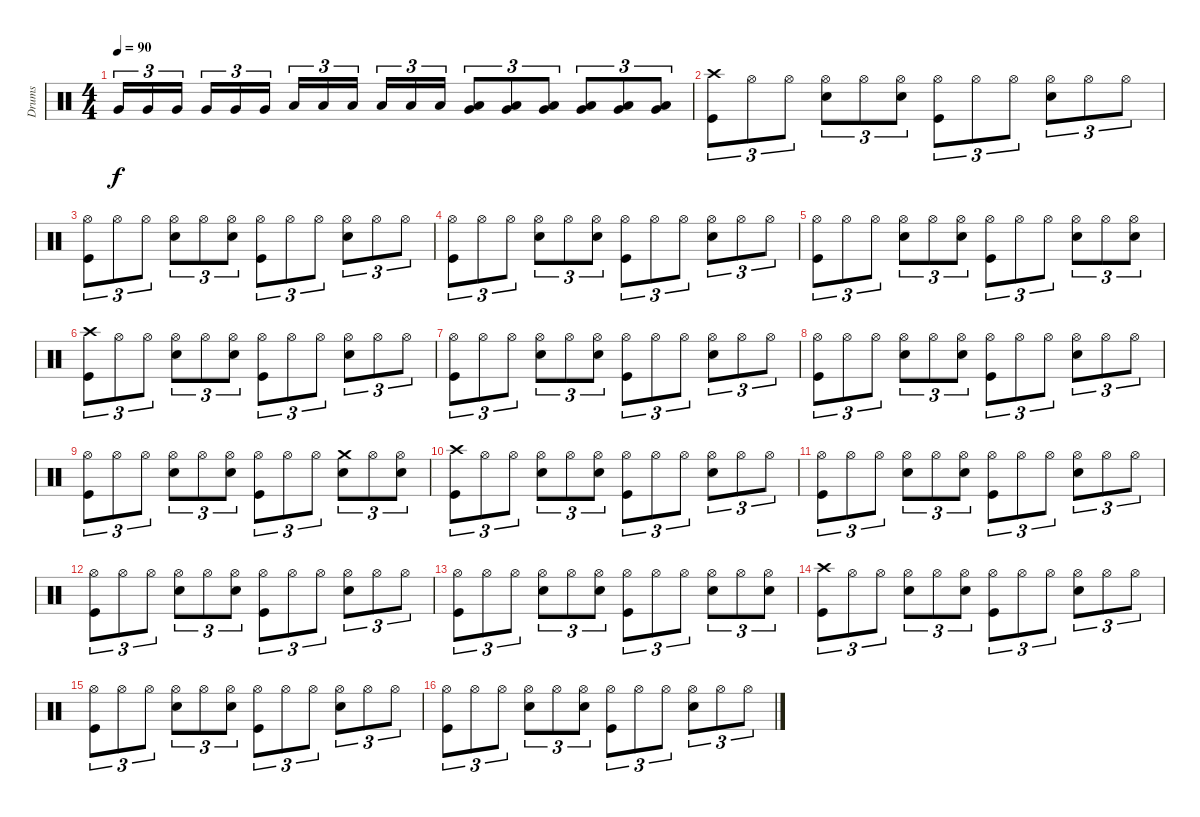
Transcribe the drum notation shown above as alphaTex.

\track ("Drums" "Drums") {instrument percussion}
\staff {score}
\articulation defaults
\ts (4 4)
\tempo 90
\clef neutral
\ks c "Very Low Tom (hit)".16{tu (3 2) dy f} "Very Low Tom (hit)".16{tu (3 2)} "Very Low Tom (hit)".16{tu (3 2)} "Very Low Tom (hit)".16{tu (3 2)} "Very Low Tom (hit)".16{tu (3 2)} "Very Low Tom (hit)".16{tu (3 2)} "Low Floor Tom (hit)".16{tu (3 2)} "Low Floor Tom (hit)".16{tu (3 2)} "Low Floor Tom (hit)".16{tu (3 2)} "Low Floor Tom (hit)".16{tu (3 2)} "Low Floor Tom (hit)".16{tu (3 2)} "Low Floor Tom (hit)".16{tu (3 2)}
("Very Low Tom (hit)" "Low Floor Tom (hit)").8{tu (3 2)} ("Very Low Tom (hit)" "Low Floor Tom (hit)").8{tu (3 2)} ("Very Low Tom (hit)" "Low Floor Tom (hit)").8{tu (3 2)} ("Low Tom (hit)" "Very Low Tom (hit)").8{tu (3 2)} ("Low Tom (hit)" "Very Low Tom (hit)").8{tu (3 2)} ("Low Tom (hit)" "Very Low Tom (hit)").8{tu (3 2)} |
("Crash high (hit)" "Kick (hit)").8{tu (3 2)} "Hi-Hat (open)".8{tu (3 2)} "Hi-Hat (open)".8{tu (3 2)} ("Hi-Hat (open)" "Snare (hit) 2").8{tu (3 2)} "Hi-Hat (open)".8{tu (3 2)} ("Hi-Hat (open)" "Snare (hit) 2").8{tu (3 2)} ("Hi-Hat (open)" "Kick (hit)").8{tu (3 2)} "Hi-Hat (open)".8{tu (3 2)} "Hi-Hat (open)".8{tu (3 2)} ("Hi-Hat (open)" "Snare (hit) 2").8{tu (3 2)} "Hi-Hat (open)".8{tu (3 2)} "Hi-Hat (open)".8{tu (3 2)} |
("Hi-Hat (open)" "Kick (hit)").8{tu (3 2)} "Hi-Hat (open)".8{tu (3 2)} "Hi-Hat (open)".8{tu (3 2)} ("Hi-Hat (open)" "Snare (hit) 2").8{tu (3 2)} "Hi-Hat (open)".8{tu (3 2)} ("Hi-Hat (open)" "Snare (hit) 2").8{tu (3 2)} ("Hi-Hat (open)" "Kick (hit)").8{tu (3 2)} "Hi-Hat (open)".8{tu (3 2)} "Hi-Hat (open)".8{tu (3 2)} ("Hi-Hat (open)" "Snare (hit) 2").8{tu (3 2)} "Hi-Hat (open)".8{tu (3 2)} "Hi-Hat (open)".8{tu (3 2)} |
("Hi-Hat (open)" "Kick (hit)").8{tu (3 2)} "Hi-Hat (open)".8{tu (3 2)} "Hi-Hat (open)".8{tu (3 2)} ("Hi-Hat (open)" "Snare (hit) 2").8{tu (3 2)} "Hi-Hat (open)".8{tu (3 2)} ("Hi-Hat (open)" "Snare (hit) 2").8{tu (3 2)} ("Hi-Hat (open)" "Kick (hit)").8{tu (3 2)} "Hi-Hat (open)".8{tu (3 2)} "Hi-Hat (open)".8{tu (3 2)} ("Hi-Hat (open)" "Snare (hit) 2").8{tu (3 2)} "Hi-Hat (open)".8{tu (3 2)} "Hi-Hat (open)".8{tu (3 2)} |
("Hi-Hat (open)" "Kick (hit)").8{tu (3 2)} "Hi-Hat (open)".8{tu (3 2)} "Hi-Hat (open)".8{tu (3 2)} ("Hi-Hat (open)" "Snare (hit) 2").8{tu (3 2)} "Hi-Hat (open)".8{tu (3 2)} ("Hi-Hat (open)" "Snare (hit) 2").8{tu (3 2)} ("Hi-Hat (open)" "Kick (hit)").8{tu (3 2)} "Hi-Hat (open)".8{tu (3 2)} "Hi-Hat (open)".8{tu (3 2)} ("Hi-Hat (open)" "Snare (hit) 2").8{tu (3 2)} "Hi-Hat (open)".8{tu (3 2)} ("Hi-Hat (open)" "Snare (hit) 2").8{tu (3 2)} |
("Crash high (hit)" "Kick (hit)").8{tu (3 2)} "Hi-Hat (open)".8{tu (3 2)} "Hi-Hat (open)".8{tu (3 2)} ("Hi-Hat (open)" "Snare (hit) 2").8{tu (3 2)} "Hi-Hat (open)".8{tu (3 2)} ("Hi-Hat (open)" "Snare (hit) 2").8{tu (3 2)} ("Hi-Hat (open)" "Kick (hit)").8{tu (3 2)} "Hi-Hat (open)".8{tu (3 2)} "Hi-Hat (open)".8{tu (3 2)} ("Hi-Hat (open)" "Snare (hit) 2").8{tu (3 2)} "Hi-Hat (open)".8{tu (3 2)} "Hi-Hat (open)".8{tu (3 2)} |
("Hi-Hat (open)" "Kick (hit)").8{tu (3 2)} "Hi-Hat (open)".8{tu (3 2)} "Hi-Hat (open)".8{tu (3 2)} ("Hi-Hat (open)" "Snare (hit) 2").8{tu (3 2)} "Hi-Hat (open)".8{tu (3 2)} ("Hi-Hat (open)" "Snare (hit) 2").8{tu (3 2)} ("Hi-Hat (open)" "Kick (hit)").8{tu (3 2)} "Hi-Hat (open)".8{tu (3 2)} "Hi-Hat (open)".8{tu (3 2)} ("Hi-Hat (open)" "Snare (hit) 2").8{tu (3 2)} "Hi-Hat (open)".8{tu (3 2)} "Hi-Hat (open)".8{tu (3 2)} |
("Hi-Hat (open)" "Kick (hit)").8{tu (3 2)} "Hi-Hat (open)".8{tu (3 2)} "Hi-Hat (open)".8{tu (3 2)} ("Hi-Hat (open)" "Snare (hit) 2").8{tu (3 2)} "Hi-Hat (open)".8{tu (3 2)} ("Hi-Hat (open)" "Snare (hit) 2").8{tu (3 2)} ("Hi-Hat (open)" "Kick (hit)").8{tu (3 2)} "Hi-Hat (open)".8{tu (3 2)} "Hi-Hat (open)".8{tu (3 2)} ("Hi-Hat (open)" "Snare (hit) 2").8{tu (3 2)} "Hi-Hat (open)".8{tu (3 2)} "Hi-Hat (open)".8{tu (3 2)} |
("Hi-Hat (open)" "Kick (hit)").8{tu (3 2)} "Hi-Hat (open)".8{tu (3 2)} "Hi-Hat (open)".8{tu (3 2)} ("Hi-Hat (open)" "Snare (hit) 2").8{tu (3 2)} "Hi-Hat (open)".8{tu (3 2)} ("Hi-Hat (open)" "Snare (hit) 2").8{tu (3 2)} ("Hi-Hat (open)" "Kick (hit)").8{tu (3 2)} "Hi-Hat (open)".8{tu (3 2)} "Hi-Hat (open)".8{tu (3 2)} ("Crash medium (hit)" "Snare (hit) 2").8{tu (3 2)} "Hi-Hat (open)".8{tu (3 2)} ("Hi-Hat (open)" "Snare (hit) 2").8{tu (3 2)} |
("Crash high (hit)" "Kick (hit)").8{tu (3 2)} "Hi-Hat (open)".8{tu (3 2)} "Hi-Hat (open)".8{tu (3 2)} ("Hi-Hat (open)" "Snare (hit) 2").8{tu (3 2)} "Hi-Hat (open)".8{tu (3 2)} ("Hi-Hat (open)" "Snare (hit) 2").8{tu (3 2)} ("Hi-Hat (open)" "Kick (hit)").8{tu (3 2)} "Hi-Hat (open)".8{tu (3 2)} "Hi-Hat (open)".8{tu (3 2)} ("Hi-Hat (open)" "Snare (hit) 2").8{tu (3 2)} "Hi-Hat (open)".8{tu (3 2)} "Hi-Hat (open)".8{tu (3 2)} |
("Hi-Hat (open)" "Kick (hit)").8{tu (3 2)} "Hi-Hat (open)".8{tu (3 2)} "Hi-Hat (open)".8{tu (3 2)} ("Hi-Hat (open)" "Snare (hit) 2").8{tu (3 2)} "Hi-Hat (open)".8{tu (3 2)} ("Hi-Hat (open)" "Snare (hit) 2").8{tu (3 2)} ("Hi-Hat (open)" "Kick (hit)").8{tu (3 2)} "Hi-Hat (open)".8{tu (3 2)} "Hi-Hat (open)".8{tu (3 2)} ("Hi-Hat (open)" "Snare (hit) 2").8{tu (3 2)} "Hi-Hat (open)".8{tu (3 2)} "Hi-Hat (open)".8{tu (3 2)} |
("Hi-Hat (open)" "Kick (hit)").8{tu (3 2)} "Hi-Hat (open)".8{tu (3 2)} "Hi-Hat (open)".8{tu (3 2)} ("Hi-Hat (open)" "Snare (hit) 2").8{tu (3 2)} "Hi-Hat (open)".8{tu (3 2)} ("Hi-Hat (open)" "Snare (hit) 2").8{tu (3 2)} ("Hi-Hat (open)" "Kick (hit)").8{tu (3 2)} "Hi-Hat (open)".8{tu (3 2)} "Hi-Hat (open)".8{tu (3 2)} ("Hi-Hat (open)" "Snare (hit) 2").8{tu (3 2)} "Hi-Hat (open)".8{tu (3 2)} "Hi-Hat (open)".8{tu (3 2)} |
("Hi-Hat (open)" "Kick (hit)").8{tu (3 2)} "Hi-Hat (open)".8{tu (3 2)} "Hi-Hat (open)".8{tu (3 2)} ("Hi-Hat (open)" "Snare (hit) 2").8{tu (3 2)} "Hi-Hat (open)".8{tu (3 2)} ("Hi-Hat (open)" "Snare (hit) 2").8{tu (3 2)} ("Hi-Hat (open)" "Kick (hit)").8{tu (3 2)} "Hi-Hat (open)".8{tu (3 2)} "Hi-Hat (open)".8{tu (3 2)} ("Hi-Hat (open)" "Snare (hit) 2").8{tu (3 2)} "Hi-Hat (open)".8{tu (3 2)} ("Hi-Hat (open)" "Snare (hit) 2").8{tu (3 2)} |
("Crash high (hit)" "Kick (hit)").8{tu (3 2)} "Hi-Hat (open)".8{tu (3 2)} "Hi-Hat (open)".8{tu (3 2)} ("Hi-Hat (open)" "Snare (hit) 2").8{tu (3 2)} "Hi-Hat (open)".8{tu (3 2)} ("Hi-Hat (open)" "Snare (hit) 2").8{tu (3 2)} ("Hi-Hat (open)" "Kick (hit)").8{tu (3 2)} "Hi-Hat (open)".8{tu (3 2)} "Hi-Hat (open)".8{tu (3 2)} ("Hi-Hat (open)" "Snare (hit) 2").8{tu (3 2)} "Hi-Hat (open)".8{tu (3 2)} "Hi-Hat (open)".8{tu (3 2)} |
("Hi-Hat (open)" "Kick (hit)").8{tu (3 2)} "Hi-Hat (open)".8{tu (3 2)} "Hi-Hat (open)".8{tu (3 2)} ("Hi-Hat (open)" "Snare (hit) 2").8{tu (3 2)} "Hi-Hat (open)".8{tu (3 2)} ("Hi-Hat (open)" "Snare (hit) 2").8{tu (3 2)} ("Hi-Hat (open)" "Kick (hit)").8{tu (3 2)} "Hi-Hat (open)".8{tu (3 2)} "Hi-Hat (open)".8{tu (3 2)} ("Hi-Hat (open)" "Snare (hit) 2").8{tu (3 2)} "Hi-Hat (open)".8{tu (3 2)} "Hi-Hat (open)".8{tu (3 2)} |
("Hi-Hat (open)" "Kick (hit)").8{tu (3 2)} "Hi-Hat (open)".8{tu (3 2)} "Hi-Hat (open)".8{tu (3 2)} ("Hi-Hat (open)" "Snare (hit) 2").8{tu (3 2)} "Hi-Hat (open)".8{tu (3 2)} ("Hi-Hat (open)" "Snare (hit) 2").8{tu (3 2)} ("Hi-Hat (open)" "Kick (hit)").8{tu (3 2)} "Hi-Hat (open)".8{tu (3 2)} "Hi-Hat (open)".8{tu (3 2)} ("Hi-Hat (open)" "Snare (hit) 2").8{tu (3 2)} "Hi-Hat (open)".8{tu (3 2)} "Hi-Hat (open)".8{tu (3 2)}
